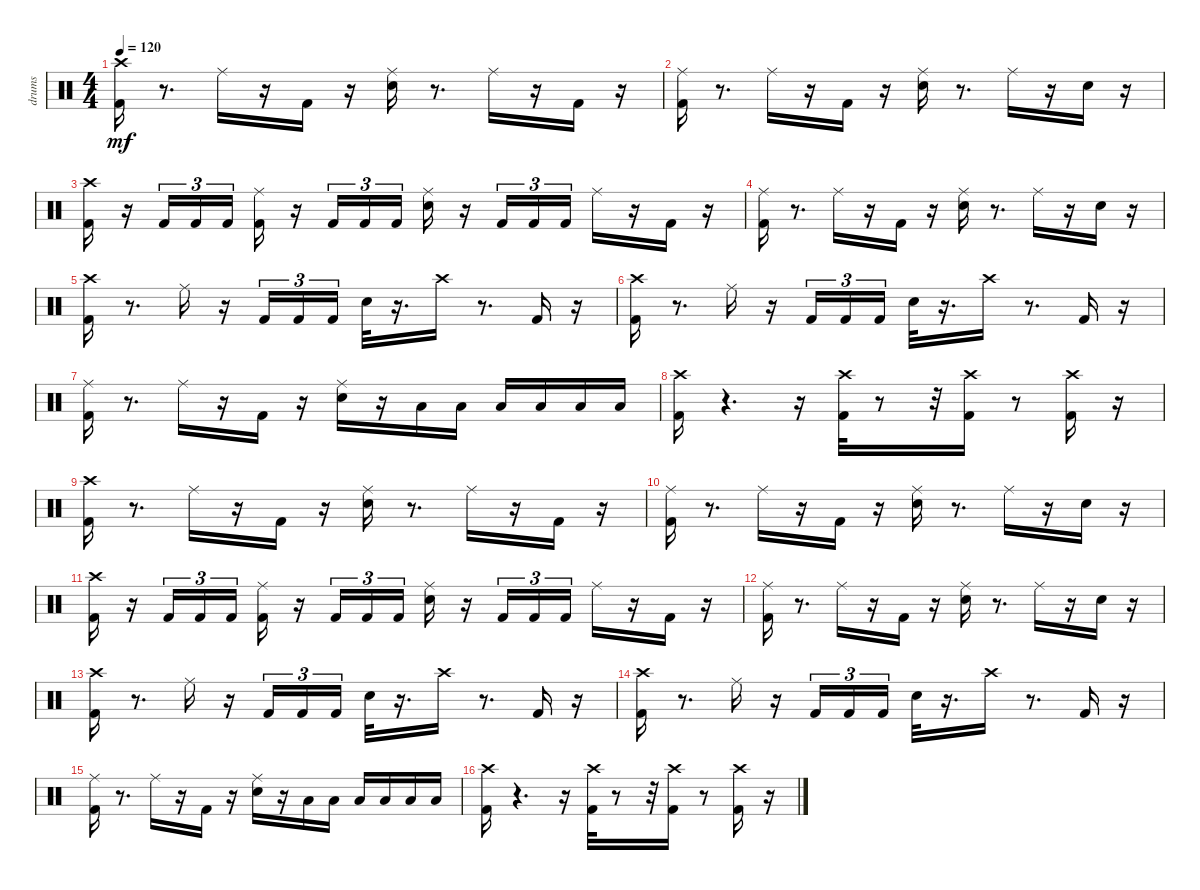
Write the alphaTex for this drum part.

\track ("drums               " "drums     ") {instrument percussion}
\staff {score}
\articulation defaults
\ts (4 4)
\tempo 120
\clef neutral
\ks c
("Kick (hit) 2" "Crash high (hit)").16{dy mf} r.8{d} "Ride (middle)".16 r.16 "Kick (hit) 2".16 r.16 ("Ride (middle)" "Snare (hit) 2").16 r.8{d} "Ride (middle)".16 r.16 "Kick (hit) 2".16 r.16 |
("Kick (hit) 2" "Ride (middle)").16 r.8{d} "Ride (middle)".16 r.16 "Kick (hit) 2".16 r.16 ("Ride (middle)" "Snare (hit) 2").16 r.8{d} "Ride (middle)".16 r.16 "Snare (hit) 2".16 r.16 |
("Crash high (hit)" "Kick (hit) 2").16 r.16 "Kick (hit) 2".16{tu (3 2)} "Kick (hit) 2".16{tu (3 2)} "Kick (hit) 2".16{tu (3 2)} ("Ride (middle)" "Kick (hit) 2").16 r.16 "Kick (hit) 2".16{tu (3 2)} "Kick (hit) 2".16{tu (3 2)} "Kick (hit) 2".16{tu (3 2)} ("Ride (middle)" "Snare (hit) 2").16 r.16 "Kick (hit) 2".16{tu (3 2)} "Kick (hit) 2".16{tu (3 2)} "Kick (hit) 2".16{tu (3 2)} "Ride (middle)".16 r.16 "Kick (hit) 2".16 r.16 |
("Kick (hit) 2" "Ride (middle)").16 r.8{d} "Ride (middle)".16 r.16 "Kick (hit) 2".16 r.16 ("Ride (middle)" "Snare (hit) 2").16 r.8{d} "Ride (middle)".16 r.16 "Snare (hit) 2".16 r.16 |
("Kick (hit) 2" "Crash high (hit)").16 r.8{d} "Ride (middle)".16 r.16 "Kick (hit) 2".16{tu (3 2)} "Kick (hit) 2".16{tu (3 2)} "Kick (hit) 2".16{tu (3 2)} "Snare (hit) 2".32 r.16{d} "Crash high (hit)".16 r.8{d} "Kick (hit) 2".16 r.16 |
("Kick (hit) 2" "Crash high (hit)").16 r.8{d} "Ride (middle)".16 r.16 "Kick (hit) 2".16{tu (3 2)} "Kick (hit) 2".16{tu (3 2)} "Kick (hit) 2".16{tu (3 2)} "Snare (hit) 2".32 r.16{d} "Crash high (hit)".16 r.8{d} "Kick (hit) 2".16 r.16 |
("Kick (hit) 2" "Ride (middle)").16 r.8{d} "Ride (middle)".16 r.16 "Kick (hit) 2".16 r.16 ("Snare (hit) 2" "Ride (middle)").16 r.16 "Low Tom (hit)".16 "Low Tom (hit)".16 "Low Tom (hit)".16 "Low Floor Tom (hit)".16 "Low Floor Tom (hit)".16 "Low Floor Tom (hit)".16 |
("Kick (hit) 2" "Crash high (hit)").16 r.4{d} r.16 ("Crash high (hit)" "Kick (hit) 2").32 r.8 r.32 ("Kick (hit) 2" "Crash high (hit)").16 r.8 ("Kick (hit) 2" "Crash high (hit)").16 r.16 |
("Kick (hit) 2" "Crash high (hit)").16 r.8{d} "Ride (middle)".16 r.16 "Kick (hit) 2".16 r.16 ("Ride (middle)" "Snare (hit) 2").16 r.8{d} "Ride (middle)".16 r.16 "Kick (hit) 2".16 r.16 |
("Kick (hit) 2" "Ride (middle)").16 r.8{d} "Ride (middle)".16 r.16 "Kick (hit) 2".16 r.16 ("Ride (middle)" "Snare (hit) 2").16 r.8{d} "Ride (middle)".16 r.16 "Snare (hit) 2".16 r.16 |
("Crash high (hit)" "Kick (hit) 2").16 r.16 "Kick (hit) 2".16{tu (3 2)} "Kick (hit) 2".16{tu (3 2)} "Kick (hit) 2".16{tu (3 2)} ("Ride (middle)" "Kick (hit) 2").16 r.16 "Kick (hit) 2".16{tu (3 2)} "Kick (hit) 2".16{tu (3 2)} "Kick (hit) 2".16{tu (3 2)} ("Ride (middle)" "Snare (hit) 2").16 r.16 "Kick (hit) 2".16{tu (3 2)} "Kick (hit) 2".16{tu (3 2)} "Kick (hit) 2".16{tu (3 2)} "Ride (middle)".16 r.16 "Kick (hit) 2".16 r.16 |
("Kick (hit) 2" "Ride (middle)").16 r.8{d} "Ride (middle)".16 r.16 "Kick (hit) 2".16 r.16 ("Ride (middle)" "Snare (hit) 2").16 r.8{d} "Ride (middle)".16 r.16 "Snare (hit) 2".16 r.16 |
("Kick (hit) 2" "Crash high (hit)").16 r.8{d} "Ride (middle)".16 r.16 "Kick (hit) 2".16{tu (3 2)} "Kick (hit) 2".16{tu (3 2)} "Kick (hit) 2".16{tu (3 2)} "Snare (hit) 2".32 r.16{d} "Crash high (hit)".16 r.8{d} "Kick (hit) 2".16 r.16 |
("Kick (hit) 2" "Crash high (hit)").16 r.8{d} "Ride (middle)".16 r.16 "Kick (hit) 2".16{tu (3 2)} "Kick (hit) 2".16{tu (3 2)} "Kick (hit) 2".16{tu (3 2)} "Snare (hit) 2".32 r.16{d} "Crash high (hit)".16 r.8{d} "Kick (hit) 2".16 r.16 |
("Kick (hit) 2" "Ride (middle)").16 r.8{d} "Ride (middle)".16 r.16 "Kick (hit) 2".16 r.16 ("Snare (hit) 2" "Ride (middle)").16 r.16 "Low Tom (hit)".16 "Low Tom (hit)".16 "Low Tom (hit)".16 "Low Floor Tom (hit)".16 "Low Floor Tom (hit)".16 "Low Floor Tom (hit)".16 |
("Kick (hit) 2" "Crash high (hit)").16 r.4{d} r.16 ("Crash high (hit)" "Kick (hit) 2").32 r.8 r.32 ("Kick (hit) 2" "Crash high (hit)").16 r.8 ("Kick (hit) 2" "Crash high (hit)").16 r.16
